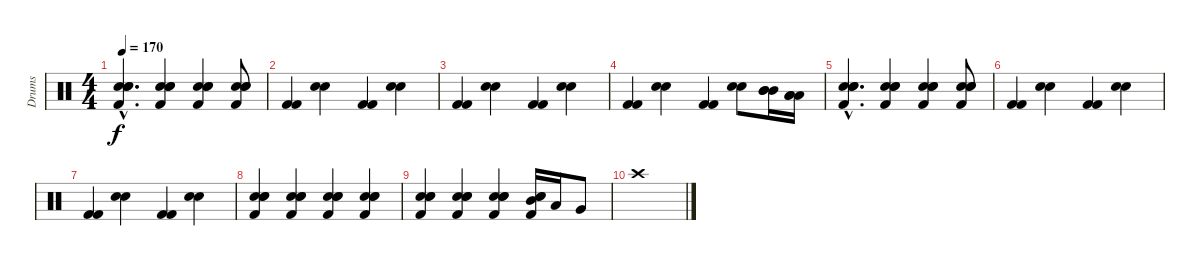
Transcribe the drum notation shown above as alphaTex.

\track ("Drums" "Drums") {instrument percussion}
\staff {score}
\articulation defaults
\ts (4 4)
\tempo 170
\clef neutral
\ks c
("Snare (hit) 2"{hac} "Electric Snare (hit)"{hac} "Hand Clap (hit)"{hac} "Kick (hit) 2"{hac}).4{d dy f} ("Snare (hit) 2" "Electric Snare (hit)" "Hand Clap (hit)" "Kick (hit) 2").4 ("Snare (hit) 2" "Electric Snare (hit)" "Hand Clap (hit)" "Kick (hit) 2").4 ("Snare (hit) 2" "Electric Snare (hit)" "Hand Clap (hit)" "Kick (hit) 2").8 |
("Kick (hit) 2" "Kick (hit) 2").4 ("Snare (hit) 2" "Hand Clap (hit)").4 ("Kick (hit) 2" "Kick (hit) 2").4 ("Snare (hit) 2" "Hand Clap (hit)").4 |
("Kick (hit) 2" "Kick (hit) 2").4 ("Snare (hit) 2" "Hand Clap (hit)").4 ("Kick (hit) 2" "Kick (hit) 2").4 ("Snare (hit) 2" "Hand Clap (hit)").4 |
("Kick (hit) 2" "Kick (hit) 2").4 ("Snare (hit) 2" "Hand Clap (hit)").4 ("Kick (hit) 2" "Kick (hit) 2").4 ("Snare (hit) 2" "Hand Clap (hit)").8 ("Mid Tom (hit)" "Mid Tom (hit)" "Mid Tom (hit)").16 ("Low Floor Tom (hit)" "Low Floor Tom (hit)" "Low Floor Tom (hit)").16 |
("Snare (hit) 2"{hac} "Electric Snare (hit)"{hac} "Hand Clap (hit)"{hac} "Kick (hit) 2"{hac}).4{d} ("Snare (hit) 2" "Electric Snare (hit)" "Hand Clap (hit)" "Kick (hit) 2").4 ("Snare (hit) 2" "Electric Snare (hit)" "Hand Clap (hit)" "Kick (hit) 2").4 ("Snare (hit) 2" "Electric Snare (hit)" "Hand Clap (hit)" "Kick (hit) 2").8 |
("Kick (hit) 2" "Kick (hit) 2").4 ("Snare (hit) 2" "Hand Clap (hit)").4 ("Kick (hit) 2" "Kick (hit) 2").4 ("Snare (hit) 2" "Hand Clap (hit)").4 |
("Kick (hit) 2" "Kick (hit) 2").4 ("Snare (hit) 2" "Hand Clap (hit)").4 ("Kick (hit) 2" "Kick (hit) 2").4 ("Snare (hit) 2" "Hand Clap (hit)").4 |
("Snare (hit) 2" "Electric Snare (hit)" "Hand Clap (hit)" "Kick (hit) 2").4 ("Snare (hit) 2" "Electric Snare (hit)" "Hand Clap (hit)" "Kick (hit) 2").4 ("Snare (hit) 2" "Electric Snare (hit)" "Hand Clap (hit)" "Kick (hit) 2").4 ("Snare (hit) 2" "Electric Snare (hit)" "Hand Clap (hit)" "Kick (hit) 2").4 |
("Snare (hit) 2" "Electric Snare (hit)" "Hand Clap (hit)" "Kick (hit) 2").4 ("Snare (hit) 2" "Electric Snare (hit)" "Hand Clap (hit)" "Kick (hit) 2").4 ("Snare (hit) 2" "Electric Snare (hit)" "Hand Clap (hit)" "Kick (hit) 2").4 ("Snare (hit) 2" "Electric Snare (hit)" "Mid Tom (hit)" "Kick (hit) 2").16 "Low Tom (hit)".16 "Very Low Tom (hit)".8 |
"Crash high (hit)".1
